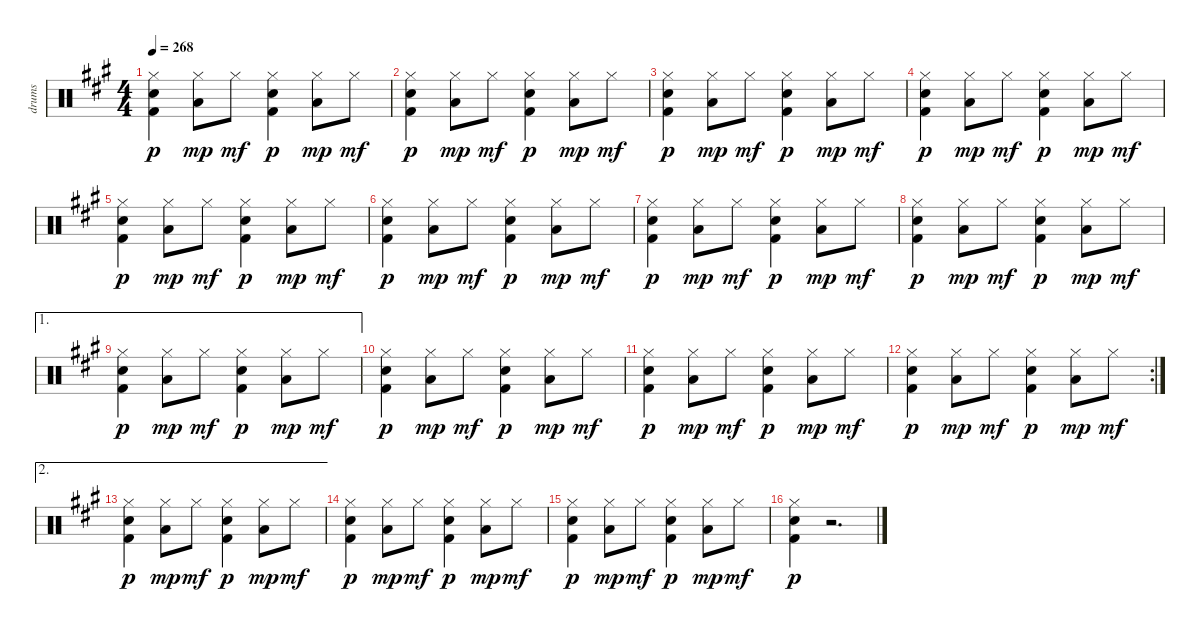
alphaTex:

\track ("drums" "drums") {instrument percussion}
\staff {score}
\articulation defaults
\ts (4 4)
\tempo 268
\clef neutral
\ks a
("Hi-Hat (closed)" "Kick (hit) 2" "Hand Clap (hit)").4{dy p} ("Hi-Hat (closed)" "Low Tom (hit)").8{dy mp} "Hi-Hat (closed)".8{dy mf} ("Hi-Hat (closed)" "Kick (hit) 2" "Hand Clap (hit)").4{dy p} ("Hi-Hat (closed)" "Low Tom (hit)").8{dy mp} "Hi-Hat (closed)".8{dy mf} |
("Hi-Hat (closed)" "Kick (hit) 2" "Hand Clap (hit)").4{dy p} ("Hi-Hat (closed)" "Low Tom (hit)").8{dy mp} "Hi-Hat (closed)".8{dy mf} ("Hi-Hat (closed)" "Kick (hit) 2" "Hand Clap (hit)").4{dy p} ("Hi-Hat (closed)" "Low Tom (hit)").8{dy mp} "Hi-Hat (closed)".8{dy mf} |
("Hi-Hat (closed)" "Kick (hit) 2" "Hand Clap (hit)").4{dy p} ("Hi-Hat (closed)" "Low Tom (hit)").8{dy mp} "Hi-Hat (closed)".8{dy mf} ("Hi-Hat (closed)" "Kick (hit) 2" "Hand Clap (hit)").4{dy p} ("Hi-Hat (closed)" "Low Tom (hit)").8{dy mp} "Hi-Hat (closed)".8{dy mf} |
("Hi-Hat (closed)" "Kick (hit) 2" "Hand Clap (hit)").4{dy p} ("Hi-Hat (closed)" "Low Tom (hit)").8{dy mp} "Hi-Hat (closed)".8{dy mf} ("Hi-Hat (closed)" "Kick (hit) 2" "Hand Clap (hit)").4{dy p} ("Hi-Hat (closed)" "Low Tom (hit)").8{dy mp} "Hi-Hat (closed)".8{dy mf} |
("Hi-Hat (closed)" "Kick (hit) 2" "Hand Clap (hit)").4{dy p} ("Hi-Hat (closed)" "Low Tom (hit)").8{dy mp} "Hi-Hat (closed)".8{dy mf} ("Hi-Hat (closed)" "Kick (hit) 2" "Hand Clap (hit)").4{dy p} ("Hi-Hat (closed)" "Low Tom (hit)").8{dy mp} "Hi-Hat (closed)".8{dy mf} |
("Hi-Hat (closed)" "Kick (hit) 2" "Hand Clap (hit)").4{dy p} ("Hi-Hat (closed)" "Low Tom (hit)").8{dy mp} "Hi-Hat (closed)".8{dy mf} ("Hi-Hat (closed)" "Kick (hit) 2" "Hand Clap (hit)").4{dy p} ("Hi-Hat (closed)" "Low Tom (hit)").8{dy mp} "Hi-Hat (closed)".8{dy mf} |
("Hi-Hat (closed)" "Kick (hit) 2" "Hand Clap (hit)").4{dy p} ("Hi-Hat (closed)" "Low Tom (hit)").8{dy mp} "Hi-Hat (closed)".8{dy mf} ("Hi-Hat (closed)" "Kick (hit) 2" "Hand Clap (hit)").4{dy p} ("Hi-Hat (closed)" "Low Tom (hit)").8{dy mp} "Hi-Hat (closed)".8{dy mf} |
("Hi-Hat (closed)" "Kick (hit) 2" "Hand Clap (hit)").4{dy p} ("Hi-Hat (closed)" "Low Tom (hit)").8{dy mp} "Hi-Hat (closed)".8{dy mf} ("Hi-Hat (closed)" "Kick (hit) 2" "Hand Clap (hit)").4{dy p} ("Hi-Hat (closed)" "Low Tom (hit)").8{dy mp} "Hi-Hat (closed)".8{dy mf} |
\ae 1
("Hi-Hat (closed)" "Kick (hit) 2" "Hand Clap (hit)").4{dy p} ("Hi-Hat (closed)" "Low Tom (hit)").8{dy mp} "Hi-Hat (closed)".8{dy mf} ("Hi-Hat (closed)" "Kick (hit) 2" "Hand Clap (hit)").4{dy p} ("Hi-Hat (closed)" "Low Tom (hit)").8{dy mp} "Hi-Hat (closed)".8{dy mf} |
("Hi-Hat (closed)" "Kick (hit) 2" "Hand Clap (hit)").4{dy p} ("Hi-Hat (closed)" "Low Tom (hit)").8{dy mp} "Hi-Hat (closed)".8{dy mf} ("Hi-Hat (closed)" "Kick (hit) 2" "Hand Clap (hit)").4{dy p} ("Hi-Hat (closed)" "Low Tom (hit)").8{dy mp} "Hi-Hat (closed)".8{dy mf} |
("Hi-Hat (closed)" "Kick (hit) 2" "Hand Clap (hit)").4{dy p} ("Hi-Hat (closed)" "Low Tom (hit)").8{dy mp} "Hi-Hat (closed)".8{dy mf} ("Hi-Hat (closed)" "Kick (hit) 2" "Hand Clap (hit)").4{dy p} ("Hi-Hat (closed)" "Low Tom (hit)").8{dy mp} "Hi-Hat (closed)".8{dy mf} |
\rc 2
("Hi-Hat (closed)" "Kick (hit) 2" "Hand Clap (hit)").4{dy p} ("Hi-Hat (closed)" "Low Tom (hit)").8{dy mp} "Hi-Hat (closed)".8{dy mf} ("Hi-Hat (closed)" "Kick (hit) 2" "Hand Clap (hit)").4{dy p} ("Hi-Hat (closed)" "Low Tom (hit)").8{dy mp} "Hi-Hat (closed)".8{dy mf} |
\ae 2
("Hi-Hat (closed)" "Kick (hit) 2" "Hand Clap (hit)").4{dy p} ("Hi-Hat (closed)" "Low Tom (hit)").8{dy mp} "Hi-Hat (closed)".8{dy mf} ("Hi-Hat (closed)" "Kick (hit) 2" "Hand Clap (hit)").4{dy p} ("Hi-Hat (closed)" "Low Tom (hit)").8{dy mp} "Hi-Hat (closed)".8{dy mf} |
("Hi-Hat (closed)" "Kick (hit) 2" "Hand Clap (hit)").4{dy p} ("Hi-Hat (closed)" "Low Tom (hit)").8{dy mp} "Hi-Hat (closed)".8{dy mf} ("Hi-Hat (closed)" "Kick (hit) 2" "Hand Clap (hit)").4{dy p} ("Hi-Hat (closed)" "Low Tom (hit)").8{dy mp} "Hi-Hat (closed)".8{dy mf} |
("Hi-Hat (closed)" "Kick (hit) 2" "Hand Clap (hit)").4{dy p} ("Hi-Hat (closed)" "Low Tom (hit)").8{dy mp} "Hi-Hat (closed)".8{dy mf} ("Hi-Hat (closed)" "Kick (hit) 2" "Hand Clap (hit)").4{dy p} ("Hi-Hat (closed)" "Low Tom (hit)").8{dy mp} "Hi-Hat (closed)".8{dy mf} |
("Hi-Hat (closed)" "Kick (hit) 2" "Hand Clap (hit)").4{dy p} r.2{d}
